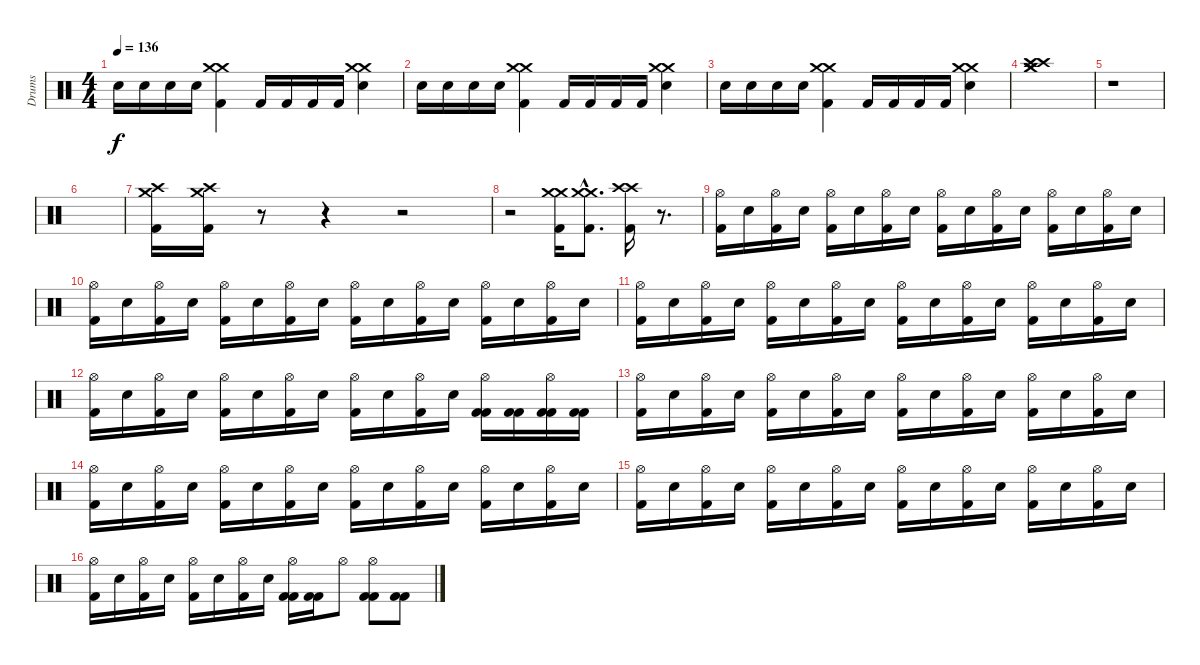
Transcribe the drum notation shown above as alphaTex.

\track ("Drums" "Drums") {instrument percussion}
\staff {score}
\articulation defaults
\ts (4 4)
\tempo 136
\clef neutral
\ks c "Snare (hit) 2".16{dy f} "Snare (hit) 2".16 "Snare (hit) 2".16 "Snare (hit) 2".16
("Crash medium (hit)" "Crash medium (hit)" "Kick (hit) 2").4 "Kick (hit) 2".16 "Kick (hit) 2".16 "Kick (hit) 2".16 "Kick (hit) 2".16 ("Crash medium (hit)" "Crash medium (hit)" "Snare (hit) 2").4 |
"Snare (hit) 2".16 "Snare (hit) 2".16 "Snare (hit) 2".16 "Snare (hit) 2".16 ("Crash medium (hit)" "Crash medium (hit)" "Kick (hit) 2").4 "Kick (hit) 2".16 "Kick (hit) 2".16 "Kick (hit) 2".16 "Kick (hit) 2".16 ("Crash medium (hit)" "Crash medium (hit)" "Snare (hit) 2").4 |
"Snare (hit) 2".16 "Snare (hit) 2".16 "Snare (hit) 2".16 "Snare (hit) 2".16 ("Crash medium (hit)" "Crash medium (hit)" "Kick (hit) 2").4 "Kick (hit) 2".16 "Kick (hit) 2".16 "Kick (hit) 2".16 "Kick (hit) 2".16 ("Crash medium (hit)" "Crash medium (hit)" "Snare (hit) 2").4 |
("Crash high (hit)" "Crash high (hit)" "Crash medium (hit)" "Crash medium (hit)").1 |
r.1 |
|
("Crash high (hit)" "Crash medium (hit)" "Kick (hit) 2").16 ("Crash high (hit)" "Crash medium (hit)" "Kick (hit) 2").16 r.8 r.4 r.2 |
r.2 ("Crash medium (hit)" "Crash medium (hit)" "Kick (hit) 2").16 ("Crash medium (hit)"{hac} "Crash medium (hit)"{hac} "Kick (hit) 2"{hac}).8{d} ("Crash high (hit)" "Crash high (hit)" "Kick (hit) 2").16 r.8{d} |
("Hi-Hat (open)" "Kick (hit) 2").16 "Snare (hit) 2".16 ("Hi-Hat (open)" "Kick (hit) 2").16 "Snare (hit) 2".16 ("Hi-Hat (open)" "Kick (hit) 2").16 "Snare (hit) 2".16 ("Hi-Hat (open)" "Kick (hit) 2").16 "Snare (hit) 2".16 ("Hi-Hat (open)" "Kick (hit) 2").16 "Snare (hit) 2".16 ("Hi-Hat (open)" "Kick (hit) 2").16 "Snare (hit) 2".16 ("Hi-Hat (open)" "Kick (hit) 2").16 "Snare (hit) 2".16 ("Hi-Hat (open)" "Kick (hit) 2").16 "Snare (hit) 2".16 |
("Hi-Hat (open)" "Kick (hit) 2").16 "Snare (hit) 2".16 ("Hi-Hat (open)" "Kick (hit) 2").16 "Snare (hit) 2".16 ("Hi-Hat (open)" "Kick (hit) 2").16 "Snare (hit) 2".16 ("Hi-Hat (open)" "Kick (hit) 2").16 "Snare (hit) 2".16 ("Hi-Hat (open)" "Kick (hit) 2").16 "Snare (hit) 2".16 ("Hi-Hat (open)" "Kick (hit) 2").16 "Snare (hit) 2".16 ("Hi-Hat (open)" "Kick (hit) 2").16 "Snare (hit) 2".16 ("Hi-Hat (open)" "Kick (hit) 2").16 "Snare (hit) 2".16 |
("Hi-Hat (open)" "Kick (hit) 2").16 "Snare (hit) 2".16 ("Hi-Hat (open)" "Kick (hit) 2").16 "Snare (hit) 2".16 ("Hi-Hat (open)" "Kick (hit) 2").16 "Snare (hit) 2".16 ("Hi-Hat (open)" "Kick (hit) 2").16 "Snare (hit) 2".16 ("Hi-Hat (open)" "Kick (hit) 2").16 "Snare (hit) 2".16 ("Hi-Hat (open)" "Kick (hit) 2").16 "Snare (hit) 2".16 ("Hi-Hat (open)" "Kick (hit) 2").16 "Snare (hit) 2".16 ("Hi-Hat (open)" "Kick (hit) 2").16 "Snare (hit) 2".16 |
("Hi-Hat (open)" "Kick (hit) 2").16 "Snare (hit) 2".16 ("Hi-Hat (open)" "Kick (hit) 2").16 "Snare (hit) 2".16 ("Hi-Hat (open)" "Kick (hit) 2").16 "Snare (hit) 2".16 ("Hi-Hat (open)" "Kick (hit) 2").16 "Snare (hit) 2".16 ("Hi-Hat (open)" "Kick (hit) 2").16 "Snare (hit) 2".16 ("Hi-Hat (open)" "Kick (hit) 2").16 "Snare (hit) 2".16 ("Hi-Hat (open)" "Kick (hit) 2" "Kick (hit) 2").16 ("Kick (hit) 2" "Kick (hit) 2").16 ("Hi-Hat (open)" "Kick (hit) 2" "Kick (hit) 2").16 ("Kick (hit) 2" "Kick (hit) 2").16 |
("Hi-Hat (open)" "Kick (hit) 2").16 "Snare (hit) 2".16 ("Hi-Hat (open)" "Kick (hit) 2").16 "Snare (hit) 2".16 ("Hi-Hat (open)" "Kick (hit) 2").16 "Snare (hit) 2".16 ("Hi-Hat (open)" "Kick (hit) 2").16 "Snare (hit) 2".16 ("Hi-Hat (open)" "Kick (hit) 2").16 "Snare (hit) 2".16 ("Hi-Hat (open)" "Kick (hit) 2").16 "Snare (hit) 2".16 ("Hi-Hat (open)" "Kick (hit) 2").16 "Snare (hit) 2".16 ("Hi-Hat (open)" "Kick (hit) 2").16 "Snare (hit) 2".16 |
("Hi-Hat (open)" "Kick (hit) 2").16 "Snare (hit) 2".16 ("Hi-Hat (open)" "Kick (hit) 2").16 "Snare (hit) 2".16 ("Hi-Hat (open)" "Kick (hit) 2").16 "Snare (hit) 2".16 ("Hi-Hat (open)" "Kick (hit) 2").16 "Snare (hit) 2".16 ("Hi-Hat (open)" "Kick (hit) 2").16 "Snare (hit) 2".16 ("Hi-Hat (open)" "Kick (hit) 2").16 "Snare (hit) 2".16 ("Hi-Hat (open)" "Kick (hit) 2").16 "Snare (hit) 2".16 ("Hi-Hat (open)" "Kick (hit) 2").16 "Snare (hit) 2".16 |
("Hi-Hat (open)" "Kick (hit) 2").16 "Snare (hit) 2".16 ("Hi-Hat (open)" "Kick (hit) 2").16 "Snare (hit) 2".16 ("Hi-Hat (open)" "Kick (hit) 2").16 "Snare (hit) 2".16 ("Hi-Hat (open)" "Kick (hit) 2").16 "Snare (hit) 2".16 ("Hi-Hat (open)" "Kick (hit) 2").16 "Snare (hit) 2".16 ("Hi-Hat (open)" "Kick (hit) 2").16 "Snare (hit) 2".16 ("Hi-Hat (open)" "Kick (hit) 2").16 "Snare (hit) 2".16 ("Hi-Hat (open)" "Kick (hit) 2").16 "Snare (hit) 2".16 |
("Hi-Hat (open)" "Kick (hit) 2").16 "Snare (hit) 2".16 ("Hi-Hat (open)" "Kick (hit) 2").16 "Snare (hit) 2".16 ("Hi-Hat (open)" "Kick (hit) 2").16 "Snare (hit) 2".16 ("Hi-Hat (open)" "Kick (hit) 2").16 "Snare (hit) 2".16 ("Hi-Hat (open)" "Kick (hit) 2" "Kick (hit) 2").16 ("Kick (hit) 2" "Kick (hit) 2").16 "Hi-Hat (open)".8 ("Hi-Hat (open)" "Kick (hit) 2" "Kick (hit) 2").8 ("Kick (hit) 2" "Kick (hit) 2").8
